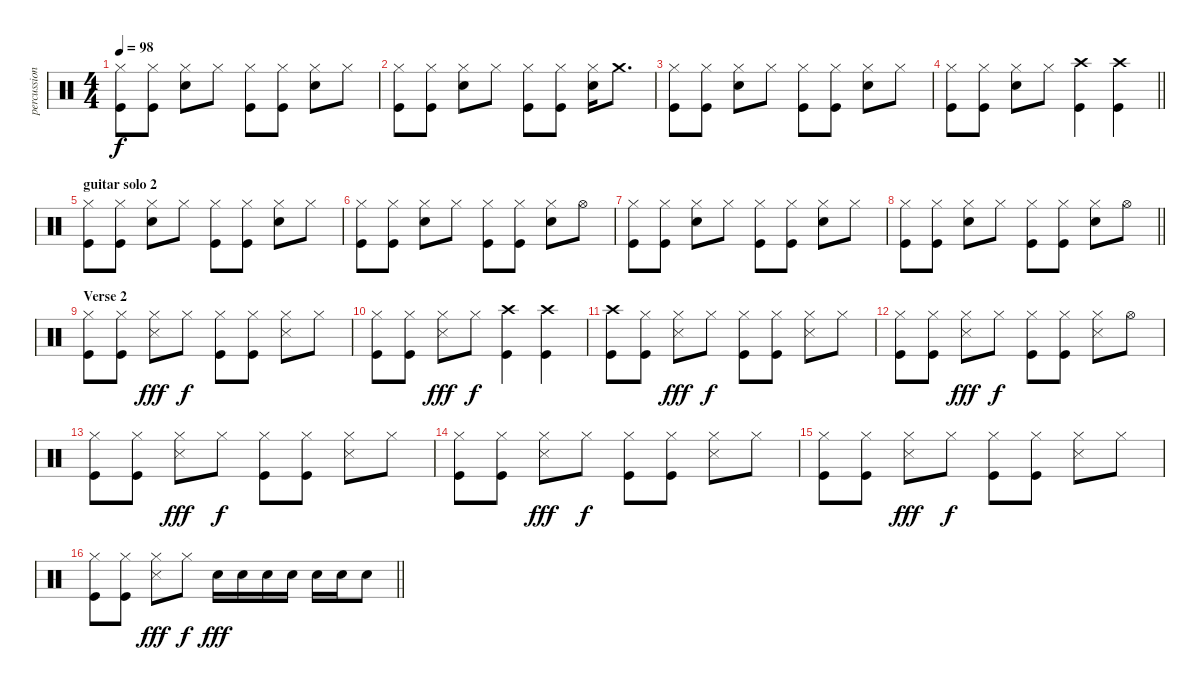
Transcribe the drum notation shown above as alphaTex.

\track ("percussion" "percussion") {instrument percussion}
\staff {score}
\articulation defaults
\ts (4 4)
\tempo 98
\clef neutral
\ks c
("Hi-Hat (closed)" "Kick (hit)").8{dy f} ("Hi-Hat (closed)" "Kick (hit)").8 ("Electric Snare (hit)" "Hi-Hat (closed)").8 "Hi-Hat (closed)".8 ("Hi-Hat (closed)" "Kick (hit)").8 ("Hi-Hat (closed)" "Kick (hit)").8 ("Electric Snare (hit)" "Hi-Hat (closed)").8 "Hi-Hat (closed)".8 |
("Hi-Hat (closed)" "Kick (hit)").8 ("Hi-Hat (closed)" "Kick (hit)").8 ("Electric Snare (hit)" "Hi-Hat (closed)").8 "Hi-Hat (closed)".8 ("Hi-Hat (closed)" "Kick (hit)").8 ("Hi-Hat (closed)" "Kick (hit)").8 ("Electric Snare (hit)" "Hi-Hat (closed)").16 "Crash medium (hit)".8{d} |
("Hi-Hat (closed)" "Kick (hit)").8 ("Hi-Hat (closed)" "Kick (hit)").8 ("Electric Snare (hit)" "Hi-Hat (closed)").8 "Hi-Hat (closed)".8 ("Hi-Hat (closed)" "Kick (hit)").8 ("Hi-Hat (closed)" "Kick (hit)").8 ("Electric Snare (hit)" "Hi-Hat (closed)").8 "Hi-Hat (closed)".8 |
\barLineRight lightlight
("Hi-Hat (closed)" "Kick (hit)").8 ("Hi-Hat (closed)" "Kick (hit)").8 ("Electric Snare (hit)" "Hi-Hat (closed)").8 "Hi-Hat (closed)".8 ("Crash high (hit)" "Kick (hit)").4 ("Crash high (hit)" "Kick (hit)").4 |
\section ("" "guitar solo 2")
("Hi-Hat (closed)" "Kick (hit)").8 ("Hi-Hat (closed)" "Kick (hit)").8 ("Electric Snare (hit)" "Hi-Hat (closed)").8 "Hi-Hat (closed)".8 ("Hi-Hat (closed)" "Kick (hit)").8 ("Hi-Hat (closed)" "Kick (hit)").8 ("Electric Snare (hit)" "Hi-Hat (closed)").8 "Hi-Hat (closed)".8 |
("Hi-Hat (closed)" "Kick (hit)").8 ("Hi-Hat (closed)" "Kick (hit)").8 ("Electric Snare (hit)" "Hi-Hat (closed)").8 "Hi-Hat (closed)".8 ("Hi-Hat (closed)" "Kick (hit)").8 ("Hi-Hat (closed)" "Kick (hit)").8 ("Electric Snare (hit)" "Hi-Hat (closed)").8 "Hi-Hat (open)".8 |
("Hi-Hat (closed)" "Kick (hit)").8 ("Hi-Hat (closed)" "Kick (hit)").8 ("Electric Snare (hit)" "Hi-Hat (closed)").8 "Hi-Hat (closed)".8 ("Hi-Hat (closed)" "Kick (hit)").8 ("Hi-Hat (closed)" "Kick (hit)").8 ("Electric Snare (hit)" "Hi-Hat (closed)").8 "Hi-Hat (closed)".8 |
\barLineRight lightlight
("Hi-Hat (closed)" "Kick (hit)").8 ("Hi-Hat (closed)" "Kick (hit)").8 ("Electric Snare (hit)" "Hi-Hat (closed)").8 "Hi-Hat (closed)".8 ("Hi-Hat (closed)" "Kick (hit)").8 ("Hi-Hat (closed)" "Kick (hit)").8 ("Electric Snare (hit)" "Hi-Hat (closed)").8 "Hi-Hat (open)".8 |
\section ("" "Verse 2")
("Hi-Hat (closed)" "Kick (hit)").8 ("Hi-Hat (closed)" "Kick (hit)").8 ("Snare (side stick) 3" "Hi-Hat (closed)").8{dy fff} "Hi-Hat (closed)".8{dy f} ("Hi-Hat (closed)" "Kick (hit)").8 ("Hi-Hat (closed)" "Kick (hit)").8 ("Snare (side stick) 3" "Hi-Hat (closed)").8 "Hi-Hat (closed)".8 |
("Hi-Hat (closed)" "Kick (hit)").8 ("Hi-Hat (closed)" "Kick (hit)").8 ("Snare (side stick) 3" "Hi-Hat (closed)").8{dy fff} "Hi-Hat (closed)".8{dy f} ("Crash high (hit)" "Kick (hit)").4 ("Crash high (hit)" "Kick (hit)").4 |
("Crash high (hit)" "Kick (hit)").8 ("Hi-Hat (closed)" "Kick (hit)").8 ("Snare (side stick) 3" "Hi-Hat (closed)").8{dy fff} "Hi-Hat (closed)".8{dy f} ("Hi-Hat (closed)" "Kick (hit)").8 ("Hi-Hat (closed)" "Kick (hit)").8 ("Snare (side stick) 3" "Hi-Hat (closed)").8 "Hi-Hat (closed)".8 |
("Hi-Hat (closed)" "Kick (hit)").8 ("Hi-Hat (closed)" "Kick (hit)").8 ("Snare (side stick) 3" "Hi-Hat (closed)").8{dy fff} "Hi-Hat (closed)".8{dy f} ("Hi-Hat (closed)" "Kick (hit)").8 ("Hi-Hat (closed)" "Kick (hit)").8 ("Snare (side stick) 3" "Hi-Hat (closed)").8 "Hi-Hat (open)".8 |
("Hi-Hat (closed)" "Kick (hit)").8 ("Hi-Hat (closed)" "Kick (hit)").8 ("Snare (side stick) 3" "Hi-Hat (closed)").8{dy fff} "Hi-Hat (closed)".8{dy f} ("Hi-Hat (closed)" "Kick (hit)").8 ("Hi-Hat (closed)" "Kick (hit)").8 ("Snare (side stick) 3" "Hi-Hat (closed)").8 "Hi-Hat (closed)".8 |
("Hi-Hat (closed)" "Kick (hit)").8 ("Hi-Hat (closed)" "Kick (hit)").8 ("Snare (side stick) 3" "Hi-Hat (closed)").8{dy fff} "Hi-Hat (closed)".8{dy f} ("Hi-Hat (closed)" "Kick (hit)").8 ("Hi-Hat (closed)" "Kick (hit)").8 ("Snare (side stick) 3" "Hi-Hat (closed)").8 "Hi-Hat (closed)".8 |
("Hi-Hat (closed)" "Kick (hit)").8 ("Hi-Hat (closed)" "Kick (hit)").8 ("Snare (side stick) 3" "Hi-Hat (closed)").8{dy fff} "Hi-Hat (closed)".8{dy f} ("Hi-Hat (closed)" "Kick (hit)").8 ("Hi-Hat (closed)" "Kick (hit)").8 ("Snare (side stick) 3" "Hi-Hat (closed)").8 "Hi-Hat (closed)".8 |
\barLineRight lightlight
("Hi-Hat (closed)" "Kick (hit)").8 ("Hi-Hat (closed)" "Kick (hit)").8 ("Snare (side stick) 3" "Hi-Hat (closed)").8{dy fff} "Hi-Hat (closed)".8{dy f} "Electric Snare (hit)".16{dy fff} "Electric Snare (hit)".16 "Electric Snare (hit)".16 "Electric Snare (hit)".16 "Electric Snare (hit)".16 "Electric Snare (hit)".16 "Electric Snare (hit)".8
